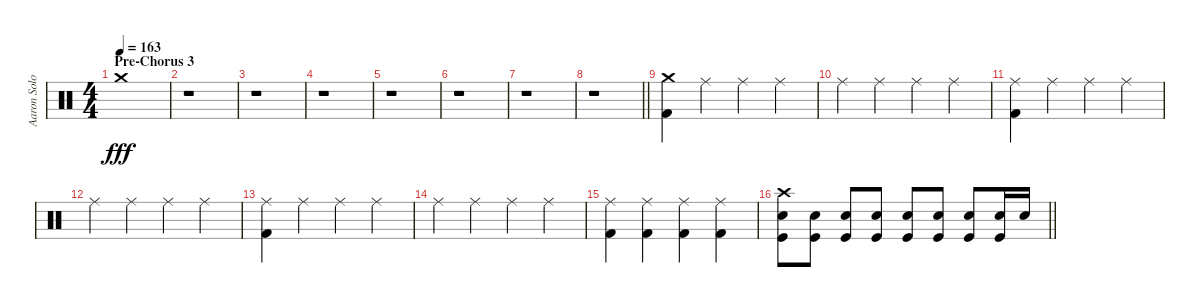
\track ("Aaron Solowoniuk - Schlagzeug" "Aaron Solo") {instrument percussion}
\staff {score}
\articulation defaults
\ts (4 4)
\section ("" "Pre-Chorus 3")
\tempo 163
\clef neutral
\ks c "Crash medium (hit)".1{dy fff}
|
r.1 |
r.1 |
r.1 |
r.1 |
r.1 |
r.1 |
\barLineRight lightlight
r.1 |
("Crash medium (hit)" "Kick (hit) 2").4 "Ride (middle)".4 "Ride (middle)".4 "Ride (middle)".4 |
"Ride (middle)".4 "Ride (middle)".4 "Ride (middle)".4 "Ride (middle)".4 |
("Ride (middle)" "Kick (hit) 2").4 "Ride (middle)".4 "Ride (middle)".4 "Ride (middle)".4 |
"Ride (middle)".4 "Ride (middle)".4 "Ride (middle)".4 "Ride (middle)".4 |
("Ride (middle)" "Kick (hit) 2").4 "Ride (middle)".4 "Ride (middle)".4 "Ride (middle)".4 |
"Ride (middle)".4 "Ride (middle)".4 "Ride (middle)".4 "Ride (middle)".4 |
("Ride (middle)" "Kick (hit) 2").4 ("Ride (middle)" "Kick (hit) 2").4 ("Ride (middle)" "Kick (hit) 2").4 ("Ride (middle)" "Kick (hit) 2").4 |
\barLineRight lightlight
("Crash high (hit)" "Electric Snare (hit)" "Kick (hit)").8 ("Electric Snare (hit)" "Kick (hit)").8 ("Electric Snare (hit)" "Kick (hit)").8 ("Electric Snare (hit)" "Kick (hit)").8 ("Electric Snare (hit)" "Kick (hit)").8 ("Electric Snare (hit)" "Kick (hit)").8 ("Electric Snare (hit)" "Kick (hit)").8 ("Electric Snare (hit)" "Kick (hit)").16 "Electric Snare (hit)".16
